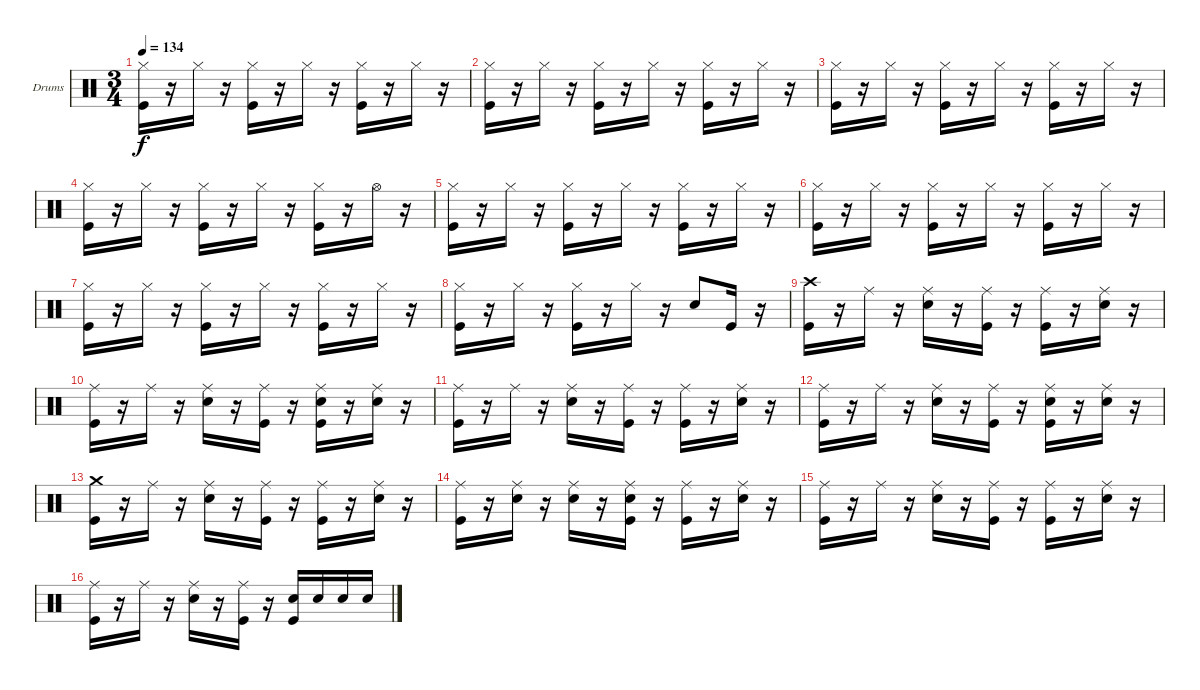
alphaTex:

\bracketExtendMode groupsimilarinstruments
\firstSystemTrackNameOrientation horizontal
\otherSystemsTrackNameOrientation horizontal
\track ("Drumkit" "Drums") {instrument percussion}
\staff {score}
\articulation defaults
\ts (3 4)
\tempo 134
\clef neutral
\ks c
("Kick (hit)" "Hi-Hat (closed)").16{dy f} r.16 "Hi-Hat (closed)".16 r.16 ("Hi-Hat (closed)" "Kick (hit)").16 r.16 "Hi-Hat (closed)".16 r.16 ("Hi-Hat (closed)" "Kick (hit)").16 r.16 "Hi-Hat (closed)".16 r.16 |
("Kick (hit)" "Hi-Hat (closed)").16 r.16 "Hi-Hat (closed)".16 r.16 ("Kick (hit)" "Hi-Hat (closed)").16 r.16 "Hi-Hat (closed)".16 r.16 ("Hi-Hat (closed)" "Kick (hit)").16 r.16 "Hi-Hat (closed)".16 r.16 |
("Hi-Hat (closed)" "Kick (hit)").16 r.16 "Hi-Hat (closed)".16 r.16 ("Kick (hit)" "Hi-Hat (closed)").16 r.16 "Hi-Hat (closed)".16 r.16 ("Kick (hit)" "Hi-Hat (closed)").16 r.16 "Hi-Hat (closed)".16 r.16 |
("Hi-Hat (closed)" "Kick (hit)").16 r.16 "Hi-Hat (closed)".16 r.16 ("Kick (hit)" "Hi-Hat (closed)").16 r.16 "Hi-Hat (closed)".16 r.16 ("Hi-Hat (closed)" "Kick (hit)").16 r.16 "Hi-Hat (open)".16 r.16 |
("Hi-Hat (closed)" "Kick (hit)").16 r.16 "Hi-Hat (closed)".16 r.16 ("Kick (hit)" "Hi-Hat (closed)").16 r.16 "Hi-Hat (closed)".16 r.16 ("Hi-Hat (closed)" "Kick (hit)").16 r.16 "Hi-Hat (closed)".16 r.16 |
("Kick (hit)" "Hi-Hat (closed)").16 r.16 "Hi-Hat (closed)".16 r.16 ("Kick (hit)" "Hi-Hat (closed)").16 r.16 "Hi-Hat (closed)".16 r.16 ("Hi-Hat (closed)" "Kick (hit)").16 r.16 "Hi-Hat (closed)".16 r.16 |
("Kick (hit)" "Hi-Hat (closed)").16 r.16 "Hi-Hat (closed)".16 r.16 ("Hi-Hat (closed)" "Kick (hit)").16 r.16 "Hi-Hat (closed)".16 r.16 ("Kick (hit)" "Hi-Hat (closed)").16 r.16 "Hi-Hat (closed)".16 r.16 |
("Hi-Hat (closed)" "Kick (hit)").16 r.16 "Hi-Hat (closed)".16 r.16 ("Kick (hit)" "Hi-Hat (closed)").16 r.16 "Hi-Hat (closed)".16 r.16 "Snare (hit) 2".8 "Kick (hit)".16 r.16 |
("Kick (hit)" "Crash high (hit)").16 r.16 "Ride (middle)".16 r.16 ("Ride (middle)" "Snare (hit) 2").16 r.16 ("Ride (middle)" "Kick (hit)").16 r.16 ("Ride (middle)" "Kick (hit)").16 r.16 ("Ride (middle)" "Snare (hit) 2").16 r.16 |
("Kick (hit)" "Ride (middle)").16 r.16 "Ride (middle)".16 r.16 ("Snare (hit) 2" "Ride (middle)").16 r.16 ("Ride (middle)" "Kick (hit)").16 r.16 ("Kick (hit)" "Snare (hit) 2" "Ride (middle)").16 r.16 ("Snare (hit) 2" "Ride (middle)").16 r.16 |
("Ride (middle)" "Kick (hit)").16 r.16 "Ride (middle)".16 r.16 ("Ride (middle)" "Snare (hit) 2").16 r.16 ("Ride (middle)" "Kick (hit)").16 r.16 ("Ride (middle)" "Kick (hit)").16 r.16 ("Ride (middle)" "Snare (hit) 2").16 r.16 |
("Kick (hit)" "Ride (middle)").16 r.16 "Ride (middle)".16 r.16 ("Snare (hit) 2" "Ride (middle)").16 r.16 ("Kick (hit)" "Ride (middle)").16 r.16 ("Ride (middle)" "Kick (hit)" "Snare (hit) 2").16 r.16 ("Snare (hit) 2" "Ride (middle)").16 r.16 |
("Crash medium (hit)" "Kick (hit)").16 r.16 "Ride (middle)".16 r.16 ("Snare (hit) 2" "Ride (middle)").16 r.16 ("Ride (middle)" "Kick (hit)").16 r.16 ("Ride (middle)" "Kick (hit)").16 r.16 ("Ride (middle)" "Snare (hit) 2").16 r.16 |
("Ride (middle)" "Kick (hit)").16 r.16 ("Snare (hit) 2" "Ride (middle)").16 r.16 ("Snare (hit) 2" "Ride (middle)").16 r.16 ("Ride (middle)" "Kick (hit)" "Snare (hit) 2").16 r.16 ("Kick (hit)" "Ride (middle)").16 r.16 ("Ride (middle)" "Snare (hit) 2").16 r.16 |
("Ride (middle)" "Kick (hit)").16 r.16 "Ride (middle)".16 r.16 ("Snare (hit) 2" "Ride (middle)").16 r.16 ("Kick (hit)" "Ride (middle)").16 r.16 ("Ride (middle)" "Kick (hit)").16 r.16 ("Snare (hit) 2" "Ride (middle)").16 r.16 |
("Kick (hit)" "Ride (middle)").16 r.16 "Ride (middle)".16 r.16 ("Ride (middle)" "Snare (hit) 2").16 r.16 ("Kick (hit)" "Ride (middle)").16 r.16 ("Snare (hit) 2" "Kick (hit)").16 "Snare (hit) 2".16 "Snare (hit) 2".16 "Snare (hit) 2".16
